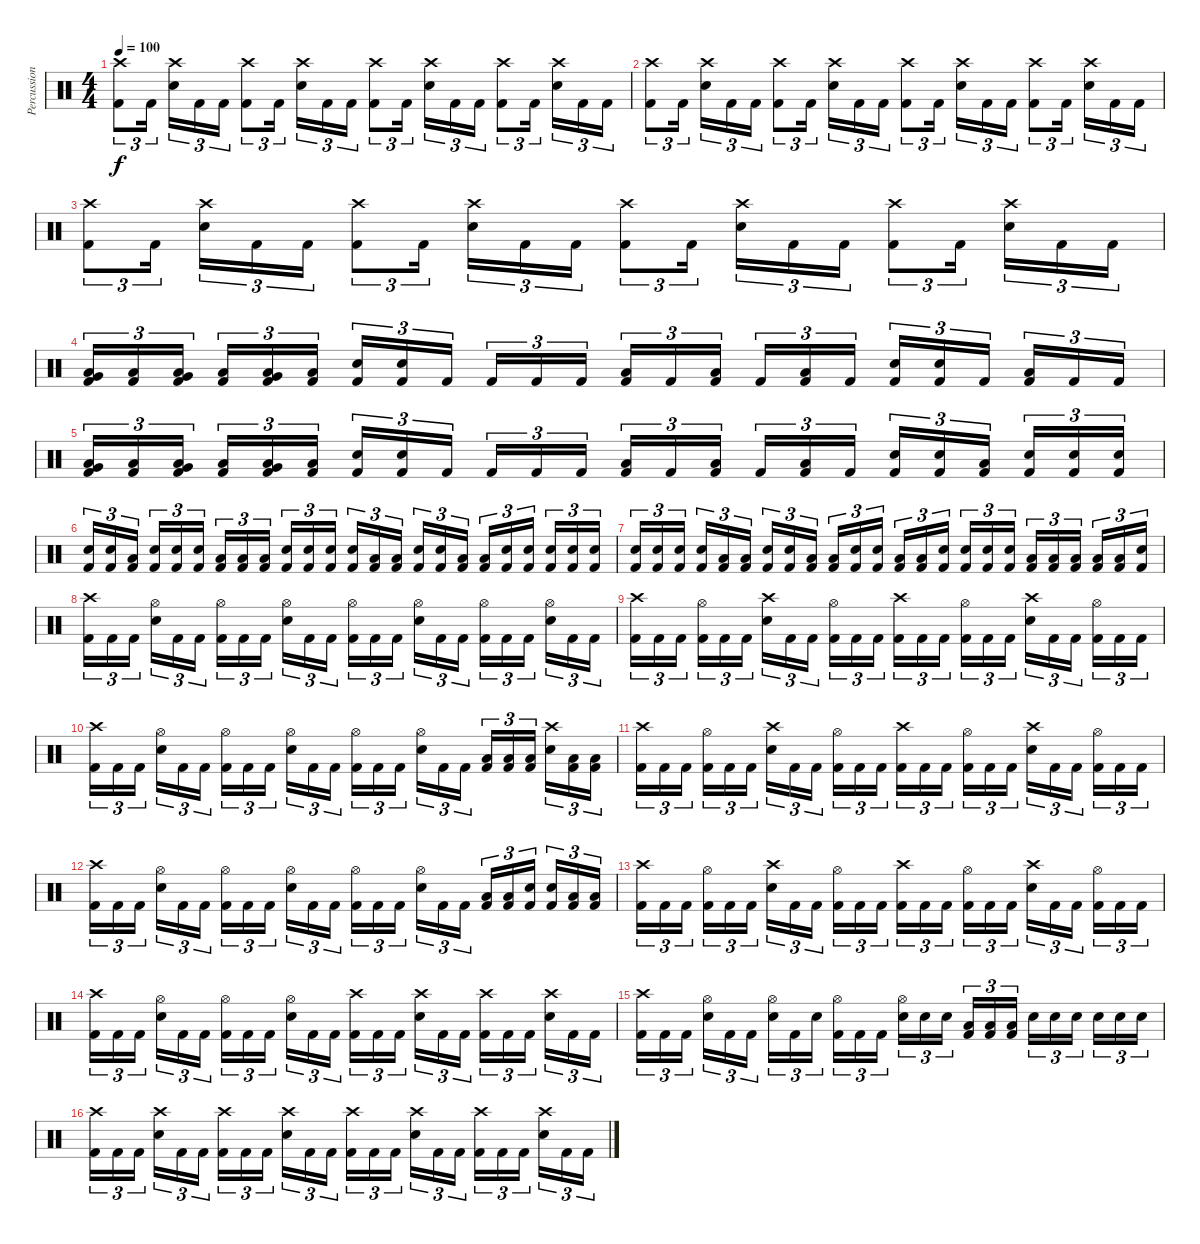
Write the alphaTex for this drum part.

\track ("Percussion" "Percussion") {instrument percussion}
\staff {score}
\articulation defaults
\ts (4 4)
\tempo 100
\clef neutral
\ks c
("Crash high (hit)" "Kick (hit) 2").8{tu (3 2) dy f} "Kick (hit) 2".16{tu (3 2)} ("Crash high (hit)" "Electric Snare (hit)").16{tu (3 2)} "Kick (hit) 2".16{tu (3 2)} "Kick (hit) 2".16{tu (3 2)} ("Crash high (hit)" "Kick (hit) 2").8{tu (3 2)} "Kick (hit) 2".16{tu (3 2)} ("Crash high (hit)" "Electric Snare (hit)").16{tu (3 2)} "Kick (hit) 2".16{tu (3 2)} "Kick (hit) 2".16{tu (3 2)} ("Crash high (hit)" "Kick (hit) 2").8{tu (3 2)} "Kick (hit) 2".16{tu (3 2)} ("Crash high (hit)" "Electric Snare (hit)").16{tu (3 2)} "Kick (hit) 2".16{tu (3 2)} "Kick (hit) 2".16{tu (3 2)} ("Crash high (hit)" "Kick (hit) 2").8{tu (3 2)} "Kick (hit) 2".16{tu (3 2)} ("Crash high (hit)" "Electric Snare (hit)").16{tu (3 2)} "Kick (hit) 2".16{tu (3 2)} "Kick (hit) 2".16{tu (3 2)} |
("Crash high (hit)" "Kick (hit) 2").8{tu (3 2)} "Kick (hit) 2".16{tu (3 2)} ("Crash high (hit)" "Electric Snare (hit)").16{tu (3 2)} "Kick (hit) 2".16{tu (3 2)} "Kick (hit) 2".16{tu (3 2)} ("Crash high (hit)" "Kick (hit) 2").8{tu (3 2)} "Kick (hit) 2".16{tu (3 2)} ("Crash high (hit)" "Electric Snare (hit)").16{tu (3 2)} "Kick (hit) 2".16{tu (3 2)} "Kick (hit) 2".16{tu (3 2)} ("Crash high (hit)" "Kick (hit) 2").8{tu (3 2)} "Kick (hit) 2".16{tu (3 2)} ("Crash high (hit)" "Electric Snare (hit)").16{tu (3 2)} "Kick (hit) 2".16{tu (3 2)} "Kick (hit) 2".16{tu (3 2)} ("Crash high (hit)" "Kick (hit) 2").8{tu (3 2)} "Kick (hit) 2".16{tu (3 2)} ("Crash high (hit)" "Electric Snare (hit)").16{tu (3 2)} "Kick (hit) 2".16{tu (3 2)} "Kick (hit) 2".16{tu (3 2)} |
("Crash high (hit)" "Kick (hit) 2").8{tu (3 2)} "Kick (hit) 2".16{tu (3 2)} ("Crash high (hit)" "Electric Snare (hit)").16{tu (3 2)} "Kick (hit) 2".16{tu (3 2)} "Kick (hit) 2".16{tu (3 2)} ("Crash high (hit)" "Kick (hit) 2").8{tu (3 2)} "Kick (hit) 2".16{tu (3 2)} ("Crash high (hit)" "Electric Snare (hit)").16{tu (3 2)} "Kick (hit) 2".16{tu (3 2)} "Kick (hit) 2".16{tu (3 2)} ("Crash high (hit)" "Kick (hit) 2").8{tu (3 2)} "Kick (hit) 2".16{tu (3 2)} ("Crash high (hit)" "Electric Snare (hit)").16{tu (3 2)} "Kick (hit) 2".16{tu (3 2)} "Kick (hit) 2".16{tu (3 2)} ("Crash high (hit)" "Kick (hit) 2").8{tu (3 2)} "Kick (hit) 2".16{tu (3 2)} ("Crash high (hit)" "Electric Snare (hit)").16{tu (3 2)} "Kick (hit) 2".16{tu (3 2)} "Kick (hit) 2".16{tu (3 2)} |
("Very Low Tom (hit)" "Low Tom (hit)" "Kick (hit) 2").16{tu (3 2)} ("Low Tom (hit)" "Kick (hit) 2").16{tu (3 2)} ("Very Low Tom (hit)" "Low Tom (hit)" "Kick (hit) 2").16{tu (3 2)} ("Low Tom (hit)" "Kick (hit) 2").16{tu (3 2)} ("Very Low Tom (hit)" "Low Tom (hit)" "Kick (hit) 2").16{tu (3 2)} ("Low Tom (hit)" "Kick (hit) 2").16{tu (3 2)} ("Electric Snare (hit)" "Kick (hit) 2").16{tu (3 2)} ("Electric Snare (hit)" "Kick (hit) 2").16{tu (3 2)} "Kick (hit) 2".16{tu (3 2)} "Kick (hit) 2".16{tu (3 2)} "Kick (hit) 2".16{tu (3 2)} "Kick (hit) 2".16{tu (3 2)} ("Low Tom (hit)" "Kick (hit) 2").16{tu (3 2)} "Kick (hit) 2".16{tu (3 2)} ("Low Tom (hit)" "Kick (hit) 2").16{tu (3 2)} "Kick (hit) 2".16{tu (3 2)} ("Low Tom (hit)" "Kick (hit) 2").16{tu (3 2)} "Kick (hit) 2".16{tu (3 2)} ("Electric Snare (hit)" "Kick (hit) 2").16{tu (3 2)} ("Electric Snare (hit)" "Kick (hit) 2").16{tu (3 2)} "Kick (hit) 2".16{tu (3 2)} ("Low Tom (hit)" "Kick (hit) 2").16{tu (3 2)} "Kick (hit) 2".16{tu (3 2)} "Kick (hit) 2".16{tu (3 2)} |
("Very Low Tom (hit)" "Low Tom (hit)" "Kick (hit) 2").16{tu (3 2)} ("Low Tom (hit)" "Kick (hit) 2").16{tu (3 2)} ("Very Low Tom (hit)" "Low Tom (hit)" "Kick (hit) 2").16{tu (3 2)} ("Low Tom (hit)" "Kick (hit) 2").16{tu (3 2)} ("Very Low Tom (hit)" "Low Tom (hit)" "Kick (hit) 2").16{tu (3 2)} ("Low Tom (hit)" "Kick (hit) 2").16{tu (3 2)} ("Electric Snare (hit)" "Kick (hit) 2").16{tu (3 2)} ("Electric Snare (hit)" "Kick (hit) 2").16{tu (3 2)} "Kick (hit) 2".16{tu (3 2)} "Kick (hit) 2".16{tu (3 2)} "Kick (hit) 2".16{tu (3 2)} "Kick (hit) 2".16{tu (3 2)} ("Low Tom (hit)" "Kick (hit) 2").16{tu (3 2)} "Kick (hit) 2".16{tu (3 2)} ("Low Tom (hit)" "Kick (hit) 2").16{tu (3 2)} "Kick (hit) 2".16{tu (3 2)} ("Low Tom (hit)" "Kick (hit) 2").16{tu (3 2)} "Kick (hit) 2".16{tu (3 2)} ("Electric Snare (hit)" "Kick (hit) 2").16{tu (3 2)} ("Electric Snare (hit)" "Kick (hit) 2").16{tu (3 2)} ("Low Tom (hit)" "Kick (hit) 2").16{tu (3 2)} ("Electric Snare (hit)" "Kick (hit) 2").16{tu (3 2)} ("Electric Snare (hit)" "Kick (hit) 2").16{tu (3 2)} ("Electric Snare (hit)" "Kick (hit) 2").16{tu (3 2)} |
("Electric Snare (hit)" "Kick (hit) 2").16{tu (3 2)} ("Electric Snare (hit)" "Kick (hit) 2").16{tu (3 2)} ("Low Tom (hit)" "Kick (hit) 2").16{tu (3 2)} ("Electric Snare (hit)" "Kick (hit) 2").16{tu (3 2)} ("Electric Snare (hit)" "Kick (hit) 2").16{tu (3 2)} ("Electric Snare (hit)" "Kick (hit) 2").16{tu (3 2)} ("Low Tom (hit)" "Kick (hit) 2").16{tu (3 2)} ("Low Tom (hit)" "Kick (hit) 2").16{tu (3 2)} ("Low Tom (hit)" "Kick (hit) 2").16{tu (3 2)} ("Electric Snare (hit)" "Kick (hit) 2").16{tu (3 2)} ("Electric Snare (hit)" "Kick (hit) 2").16{tu (3 2)} ("Electric Snare (hit)" "Kick (hit) 2").16{tu (3 2)} ("Electric Snare (hit)" "Kick (hit) 2").16{tu (3 2)} ("Low Tom (hit)" "Kick (hit) 2").16{tu (3 2)} ("Low Tom (hit)" "Kick (hit) 2").16{tu (3 2)} ("Electric Snare (hit)" "Kick (hit) 2").16{tu (3 2)} ("Electric Snare (hit)" "Kick (hit) 2").16{tu (3 2)} ("Low Tom (hit)" "Kick (hit) 2").16{tu (3 2)} ("Low Tom (hit)" "Kick (hit) 2").16{tu (3 2)} ("Electric Snare (hit)" "Kick (hit) 2").16{tu (3 2)} ("Electric Snare (hit)" "Kick (hit) 2").16{tu (3 2)} ("Electric Snare (hit)" "Kick (hit) 2").16{tu (3 2)} ("Electric Snare (hit)" "Kick (hit) 2").16{tu (3 2)} ("Electric Snare (hit)" "Kick (hit) 2").16{tu (3 2)} |
("Electric Snare (hit)" "Kick (hit) 2").16{tu (3 2)} ("Electric Snare (hit)" "Kick (hit) 2").16{tu (3 2)} ("Electric Snare (hit)" "Kick (hit) 2").16{tu (3 2)} ("Electric Snare (hit)" "Kick (hit) 2").16{tu (3 2)} ("Low Tom (hit)" "Kick (hit) 2").16{tu (3 2)} ("Low Tom (hit)" "Kick (hit) 2").16{tu (3 2)} ("Electric Snare (hit)" "Kick (hit) 2").16{tu (3 2)} ("Electric Snare (hit)" "Kick (hit) 2").16{tu (3 2)} ("Low Tom (hit)" "Kick (hit) 2").16{tu (3 2)} ("Low Tom (hit)" "Kick (hit) 2").16{tu (3 2)} ("Electric Snare (hit)" "Kick (hit) 2").16{tu (3 2)} ("Electric Snare (hit)" "Kick (hit) 2").16{tu (3 2)} ("Low Tom (hit)" "Kick (hit) 2").16{tu (3 2)} ("Low Tom (hit)" "Kick (hit) 2").16{tu (3 2)} ("Electric Snare (hit)" "Kick (hit) 2").16{tu (3 2)} ("Electric Snare (hit)" "Kick (hit) 2").16{tu (3 2)} ("Electric Snare (hit)" "Kick (hit) 2").16{tu (3 2)} ("Electric Snare (hit)" "Kick (hit) 2").16{tu (3 2)} ("Low Tom (hit)" "Kick (hit) 2").16{tu (3 2)} ("Low Tom (hit)" "Kick (hit) 2").16{tu (3 2)} ("Low Tom (hit)" "Kick (hit) 2").16{tu (3 2)} ("Low Tom (hit)" "Kick (hit) 2").16{tu (3 2)} ("Low Tom (hit)" "Kick (hit) 2").16{tu (3 2)} ("Electric Snare (hit)" "Kick (hit) 2").16{tu (3 2)} |
("Crash high (hit)" "Kick (hit) 2").16{tu (3 2)} "Kick (hit) 2".16{tu (3 2)} "Kick (hit) 2".16{tu (3 2)} ("Hi-Hat (open)" "Electric Snare (hit)").16{tu (3 2)} "Kick (hit) 2".16{tu (3 2)} "Kick (hit) 2".16{tu (3 2)} ("Hi-Hat (open)" "Kick (hit) 2").16{tu (3 2)} "Kick (hit) 2".16{tu (3 2)} "Kick (hit) 2".16{tu (3 2)} ("Hi-Hat (open)" "Electric Snare (hit)").16{tu (3 2)} "Kick (hit) 2".16{tu (3 2)} "Kick (hit) 2".16{tu (3 2)} ("Hi-Hat (open)" "Kick (hit) 2").16{tu (3 2)} "Kick (hit) 2".16{tu (3 2)} "Kick (hit) 2".16{tu (3 2)} ("Hi-Hat (open)" "Electric Snare (hit)").16{tu (3 2)} "Kick (hit) 2".16{tu (3 2)} "Kick (hit) 2".16{tu (3 2)} ("Hi-Hat (open)" "Kick (hit) 2").16{tu (3 2)} "Kick (hit) 2".16{tu (3 2)} "Kick (hit) 2".16{tu (3 2)} ("Hi-Hat (open)" "Electric Snare (hit)").16{tu (3 2)} "Kick (hit) 2".16{tu (3 2)} "Kick (hit) 2".16{tu (3 2)} |
("Crash high (hit)" "Kick (hit) 2").16{tu (3 2)} "Kick (hit) 2".16{tu (3 2)} "Kick (hit) 2".16{tu (3 2)} ("Hi-Hat (open)" "Kick (hit) 2").16{tu (3 2)} "Kick (hit) 2".16{tu (3 2)} "Kick (hit) 2".16{tu (3 2)} ("Crash high (hit)" "Electric Snare (hit)").16{tu (3 2)} "Kick (hit) 2".16{tu (3 2)} "Kick (hit) 2".16{tu (3 2)} ("Hi-Hat (open)" "Kick (hit) 2").16{tu (3 2)} "Kick (hit) 2".16{tu (3 2)} "Kick (hit) 2".16{tu (3 2)} ("Crash high (hit)" "Kick (hit) 2").16{tu (3 2)} "Kick (hit) 2".16{tu (3 2)} "Kick (hit) 2".16{tu (3 2)} ("Hi-Hat (open)" "Kick (hit) 2").16{tu (3 2)} "Kick (hit) 2".16{tu (3 2)} "Kick (hit) 2".16{tu (3 2)} ("Crash high (hit)" "Electric Snare (hit)").16{tu (3 2)} "Kick (hit) 2".16{tu (3 2)} "Kick (hit) 2".16{tu (3 2)} ("Hi-Hat (open)" "Kick (hit) 2").16{tu (3 2)} "Kick (hit) 2".16{tu (3 2)} "Kick (hit) 2".16{tu (3 2)} |
("Crash high (hit)" "Kick (hit) 2").16{tu (3 2)} "Kick (hit) 2".16{tu (3 2)} "Kick (hit) 2".16{tu (3 2)} ("Hi-Hat (open)" "Electric Snare (hit)").16{tu (3 2)} "Kick (hit) 2".16{tu (3 2)} "Kick (hit) 2".16{tu (3 2)} ("Hi-Hat (open)" "Kick (hit) 2").16{tu (3 2)} "Kick (hit) 2".16{tu (3 2)} "Kick (hit) 2".16{tu (3 2)} ("Hi-Hat (open)" "Electric Snare (hit)").16{tu (3 2)} "Kick (hit) 2".16{tu (3 2)} "Kick (hit) 2".16{tu (3 2)} ("Hi-Hat (open)" "Kick (hit) 2").16{tu (3 2)} "Kick (hit) 2".16{tu (3 2)} "Kick (hit) 2".16{tu (3 2)} ("Hi-Hat (open)" "Electric Snare (hit)").16{tu (3 2)} "Kick (hit) 2".16{tu (3 2)} "Kick (hit) 2".16{tu (3 2)} ("Low Tom (hit)" "Kick (hit) 2").16{tu (3 2)} ("Low Tom (hit)" "Kick (hit) 2").16{tu (3 2)} ("Low Tom (hit)" "Kick (hit) 2").16{tu (3 2)} ("Crash high (hit)" "Electric Snare (hit)").16{tu (3 2)} ("Low Tom (hit)" "Kick (hit) 2").16{tu (3 2)} ("Low Tom (hit)" "Kick (hit) 2").16{tu (3 2)} |
("Crash high (hit)" "Kick (hit) 2").16{tu (3 2)} "Kick (hit) 2".16{tu (3 2)} "Kick (hit) 2".16{tu (3 2)} ("Hi-Hat (open)" "Kick (hit) 2").16{tu (3 2)} "Kick (hit) 2".16{tu (3 2)} "Kick (hit) 2".16{tu (3 2)} ("Crash high (hit)" "Electric Snare (hit)").16{tu (3 2)} "Kick (hit) 2".16{tu (3 2)} "Kick (hit) 2".16{tu (3 2)} ("Hi-Hat (open)" "Kick (hit) 2").16{tu (3 2)} "Kick (hit) 2".16{tu (3 2)} "Kick (hit) 2".16{tu (3 2)} ("Crash high (hit)" "Kick (hit) 2").16{tu (3 2)} "Kick (hit) 2".16{tu (3 2)} "Kick (hit) 2".16{tu (3 2)} ("Hi-Hat (open)" "Kick (hit) 2").16{tu (3 2)} "Kick (hit) 2".16{tu (3 2)} "Kick (hit) 2".16{tu (3 2)} ("Crash high (hit)" "Electric Snare (hit)").16{tu (3 2)} "Kick (hit) 2".16{tu (3 2)} "Kick (hit) 2".16{tu (3 2)} ("Hi-Hat (open)" "Kick (hit) 2").16{tu (3 2)} "Kick (hit) 2".16{tu (3 2)} "Kick (hit) 2".16{tu (3 2)} |
("Crash high (hit)" "Kick (hit) 2").16{tu (3 2)} "Kick (hit) 2".16{tu (3 2)} "Kick (hit) 2".16{tu (3 2)} ("Hi-Hat (open)" "Electric Snare (hit)").16{tu (3 2)} "Kick (hit) 2".16{tu (3 2)} "Kick (hit) 2".16{tu (3 2)} ("Hi-Hat (open)" "Kick (hit) 2").16{tu (3 2)} "Kick (hit) 2".16{tu (3 2)} "Kick (hit) 2".16{tu (3 2)} ("Hi-Hat (open)" "Electric Snare (hit)").16{tu (3 2)} "Kick (hit) 2".16{tu (3 2)} "Kick (hit) 2".16{tu (3 2)} ("Hi-Hat (open)" "Kick (hit) 2").16{tu (3 2)} "Kick (hit) 2".16{tu (3 2)} "Kick (hit) 2".16{tu (3 2)} ("Hi-Hat (open)" "Electric Snare (hit)").16{tu (3 2)} "Kick (hit) 2".16{tu (3 2)} "Kick (hit) 2".16{tu (3 2)} ("Low Tom (hit)" "Kick (hit) 2").16{tu (3 2)} ("Low Tom (hit)" "Kick (hit) 2").16{tu (3 2)} ("Electric Snare (hit)" "Kick (hit) 2").16{tu (3 2)} ("Electric Snare (hit)" "Kick (hit) 2").16{tu (3 2)} ("Low Tom (hit)" "Kick (hit) 2").16{tu (3 2)} ("Low Tom (hit)" "Kick (hit) 2").16{tu (3 2)} |
("Crash high (hit)" "Kick (hit) 2").16{tu (3 2)} "Kick (hit) 2".16{tu (3 2)} "Kick (hit) 2".16{tu (3 2)} ("Hi-Hat (open)" "Kick (hit) 2").16{tu (3 2)} "Kick (hit) 2".16{tu (3 2)} "Kick (hit) 2".16{tu (3 2)} ("Crash high (hit)" "Electric Snare (hit)").16{tu (3 2)} "Kick (hit) 2".16{tu (3 2)} "Kick (hit) 2".16{tu (3 2)} ("Hi-Hat (open)" "Kick (hit) 2").16{tu (3 2)} "Kick (hit) 2".16{tu (3 2)} "Kick (hit) 2".16{tu (3 2)} ("Crash high (hit)" "Kick (hit) 2").16{tu (3 2)} "Kick (hit) 2".16{tu (3 2)} "Kick (hit) 2".16{tu (3 2)} ("Hi-Hat (open)" "Kick (hit) 2").16{tu (3 2)} "Kick (hit) 2".16{tu (3 2)} "Kick (hit) 2".16{tu (3 2)} ("Crash high (hit)" "Electric Snare (hit)").16{tu (3 2)} "Kick (hit) 2".16{tu (3 2)} "Kick (hit) 2".16{tu (3 2)} ("Hi-Hat (open)" "Kick (hit) 2").16{tu (3 2)} "Kick (hit) 2".16{tu (3 2)} "Kick (hit) 2".16{tu (3 2)} |
("Crash high (hit)" "Kick (hit) 2").16{tu (3 2)} "Kick (hit) 2".16{tu (3 2)} "Kick (hit) 2".16{tu (3 2)} ("Hi-Hat (open)" "Electric Snare (hit)").16{tu (3 2)} "Kick (hit) 2".16{tu (3 2)} "Kick (hit) 2".16{tu (3 2)} ("Hi-Hat (open)" "Kick (hit) 2").16{tu (3 2)} "Kick (hit) 2".16{tu (3 2)} "Kick (hit) 2".16{tu (3 2)} ("Hi-Hat (open)" "Electric Snare (hit)").16{tu (3 2)} "Kick (hit) 2".16{tu (3 2)} "Kick (hit) 2".16{tu (3 2)} ("Crash high (hit)" "Kick (hit) 2").16{tu (3 2)} "Kick (hit) 2".16{tu (3 2)} "Kick (hit) 2".16{tu (3 2)} ("Crash high (hit)" "Electric Snare (hit)").16{tu (3 2)} "Kick (hit) 2".16{tu (3 2)} "Kick (hit) 2".16{tu (3 2)} ("Crash high (hit)" "Kick (hit) 2").16{tu (3 2)} "Kick (hit) 2".16{tu (3 2)} "Kick (hit) 2".16{tu (3 2)} ("Crash high (hit)" "Electric Snare (hit)").16{tu (3 2)} "Kick (hit) 2".16{tu (3 2)} "Kick (hit) 2".16{tu (3 2)} |
("Crash high (hit)" "Kick (hit) 2").16{tu (3 2)} "Kick (hit) 2".16{tu (3 2)} "Kick (hit) 2".16{tu (3 2)} ("Hi-Hat (open)" "Electric Snare (hit)").16{tu (3 2)} "Kick (hit) 2".16{tu (3 2)} "Kick (hit) 2".16{tu (3 2)} ("Hi-Hat (open)" "Electric Snare (hit)").16{tu (3 2)} "Kick (hit) 2".16{tu (3 2)} "Electric Snare (hit)".16{tu (3 2)} ("Hi-Hat (open)" "Kick (hit) 2").16{tu (3 2)} "Kick (hit) 2".16{tu (3 2)} "Kick (hit) 2".16{tu (3 2)} ("Hi-Hat (open)" "Electric Snare (hit)").16{tu (3 2)} "Electric Snare (hit)".16{tu (3 2)} "Electric Snare (hit)".16{tu (3 2)} ("Low Tom (hit)" "Kick (hit) 2").16{tu (3 2)} ("Low Tom (hit)" "Kick (hit) 2").16{tu (3 2)} ("Low Tom (hit)" "Kick (hit) 2").16{tu (3 2)} "Electric Snare (hit)".16{tu (3 2)} "Electric Snare (hit)".16{tu (3 2)} "Electric Snare (hit)".16{tu (3 2)} "Electric Snare (hit)".16{tu (3 2)} "Electric Snare (hit)".16{tu (3 2)} "Electric Snare (hit)".16{tu (3 2)} |
("Crash high (hit)" "Kick (hit) 2").16{tu (3 2)} "Kick (hit) 2".16{tu (3 2)} "Kick (hit) 2".16{tu (3 2)} ("Crash high (hit)" "Electric Snare (hit)").16{tu (3 2)} "Kick (hit) 2".16{tu (3 2)} "Kick (hit) 2".16{tu (3 2)} ("Crash high (hit)" "Kick (hit) 2").16{tu (3 2)} "Kick (hit) 2".16{tu (3 2)} "Kick (hit) 2".16{tu (3 2)} ("Crash high (hit)" "Electric Snare (hit)").16{tu (3 2)} "Kick (hit) 2".16{tu (3 2)} "Kick (hit) 2".16{tu (3 2)} ("Crash high (hit)" "Kick (hit) 2").16{tu (3 2)} "Kick (hit) 2".16{tu (3 2)} "Kick (hit) 2".16{tu (3 2)} ("Crash high (hit)" "Electric Snare (hit)").16{tu (3 2)} "Kick (hit) 2".16{tu (3 2)} "Kick (hit) 2".16{tu (3 2)} ("Crash high (hit)" "Kick (hit) 2").16{tu (3 2)} "Kick (hit) 2".16{tu (3 2)} "Kick (hit) 2".16{tu (3 2)} ("Crash high (hit)" "Electric Snare (hit)").16{tu (3 2)} "Kick (hit) 2".16{tu (3 2)} "Kick (hit) 2".16{tu (3 2)}
